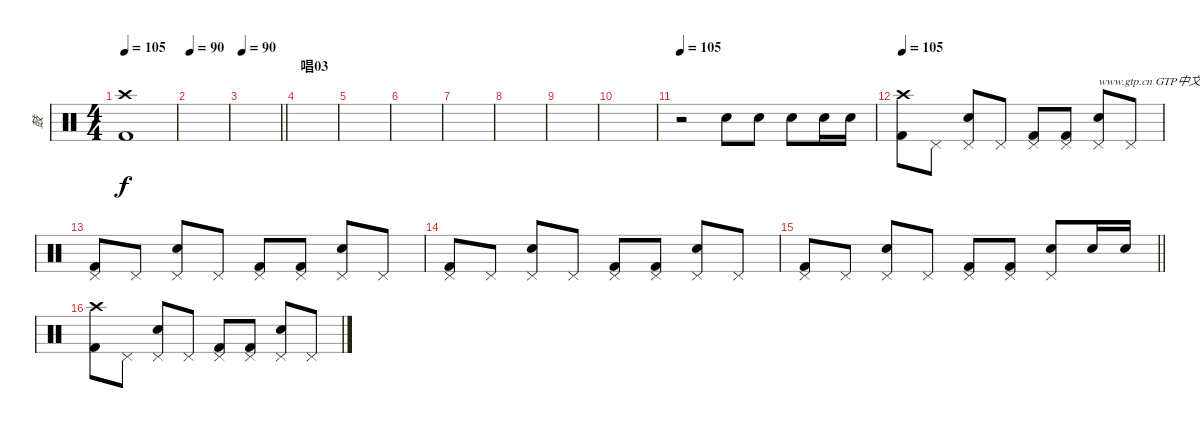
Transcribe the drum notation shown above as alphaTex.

\track ("鼓" "鼓") {instrument percussion}
\staff {score}
\articulation defaults
\ts (4 4)
\tempo 105
\clef neutral
\ks c
("Crash high (hit)" "Kick (hit) 2").1{dy f} |
\tempo 90
|
\tempo 90
\barLineRight lightlight
|
\section ("" "唱03")
|
|
|
|
|
|
|
\tempo 105
r.2 "Electric Snare (hit)".8 "Electric Snare (hit)".8 "Electric Snare (hit)".8 "Electric Snare (hit)".16 "Electric Snare (hit)".16 |
\tempo 105
("Crash high (hit)" "Kick (hit) 2").8 "Pedal Hi-Hat (hit)".8 ("Pedal Hi-Hat (hit)" "Electric Snare (hit)").8 "Pedal Hi-Hat (hit)".8 ("Pedal Hi-Hat (hit)" "Kick (hit) 2").8 ("Pedal Hi-Hat (hit)" "Kick (hit) 2").8 ("Pedal Hi-Hat (hit)" "Electric Snare (hit)").8{txt "www.gtp.cn GTP中文网为您提供优秀的谱子"} "Pedal Hi-Hat (hit)".8 |
("Pedal Hi-Hat (hit)" "Kick (hit) 2").8 "Pedal Hi-Hat (hit)".8 ("Pedal Hi-Hat (hit)" "Electric Snare (hit)").8 "Pedal Hi-Hat (hit)".8 ("Pedal Hi-Hat (hit)" "Kick (hit) 2").8 ("Pedal Hi-Hat (hit)" "Kick (hit) 2").8 ("Pedal Hi-Hat (hit)" "Electric Snare (hit)").8 "Pedal Hi-Hat (hit)".8 |
("Pedal Hi-Hat (hit)" "Kick (hit) 2").8 "Pedal Hi-Hat (hit)".8 ("Pedal Hi-Hat (hit)" "Electric Snare (hit)").8 "Pedal Hi-Hat (hit)".8 ("Pedal Hi-Hat (hit)" "Kick (hit) 2").8 ("Pedal Hi-Hat (hit)" "Kick (hit) 2").8 ("Pedal Hi-Hat (hit)" "Electric Snare (hit)").8 "Pedal Hi-Hat (hit)".8 |
\barLineRight lightlight
("Pedal Hi-Hat (hit)" "Kick (hit) 2").8 "Pedal Hi-Hat (hit)".8 ("Pedal Hi-Hat (hit)" "Electric Snare (hit)").8 "Pedal Hi-Hat (hit)".8 ("Pedal Hi-Hat (hit)" "Kick (hit) 2").8 ("Pedal Hi-Hat (hit)" "Kick (hit) 2").8 ("Pedal Hi-Hat (hit)" "Electric Snare (hit)").8 "Electric Snare (hit)".16 "Electric Snare (hit)".16 |
("Crash high (hit)" "Kick (hit) 2").8 "Pedal Hi-Hat (hit)".8 ("Pedal Hi-Hat (hit)" "Electric Snare (hit)").8 "Pedal Hi-Hat (hit)".8 ("Pedal Hi-Hat (hit)" "Kick (hit) 2").8 ("Pedal Hi-Hat (hit)" "Kick (hit) 2").8 ("Pedal Hi-Hat (hit)" "Electric Snare (hit)").8 "Pedal Hi-Hat (hit)".8
